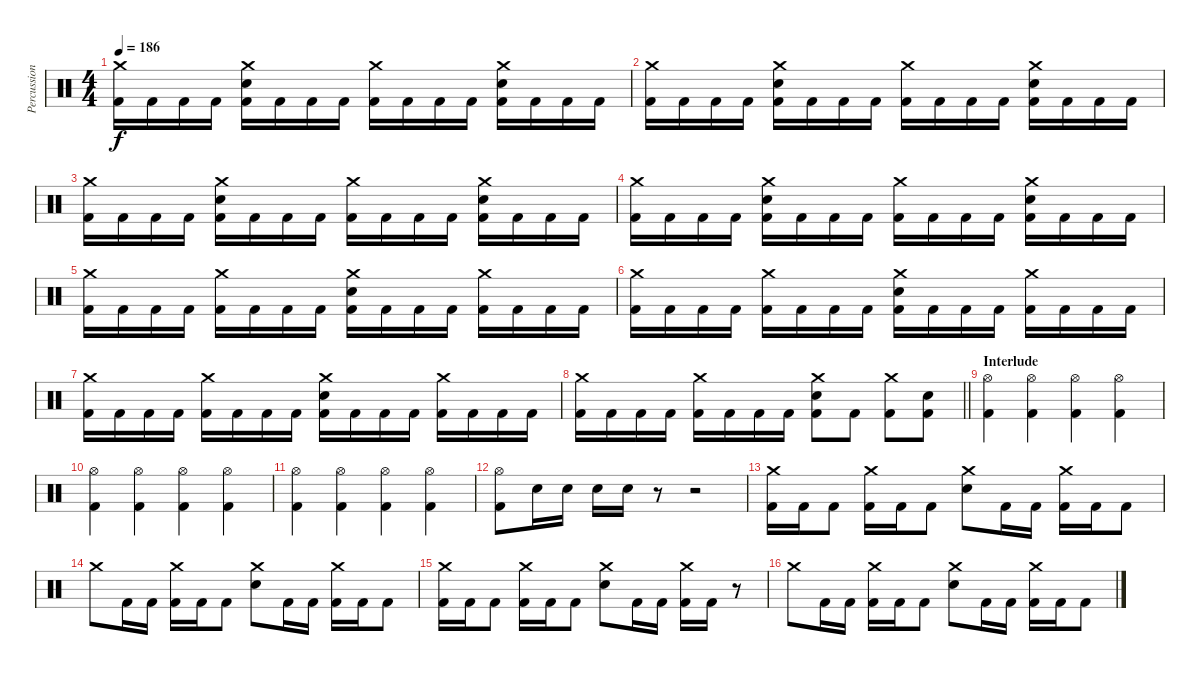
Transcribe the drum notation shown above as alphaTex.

\track ("Percussion" "Percussion") {instrument percussion}
\staff {score}
\articulation defaults
\ts (4 4)
\tempo 186
\clef neutral
\ks c
("Crash medium (hit)" "Kick (hit) 2").16{dy f} "Kick (hit) 2".16 "Kick (hit) 2".16 "Kick (hit) 2".16 ("Crash medium (hit)" "Snare (hit) 2" "Kick (hit) 2").16 "Kick (hit) 2".16 "Kick (hit) 2".16 "Kick (hit) 2".16 ("Crash medium (hit)" "Kick (hit) 2").16 "Kick (hit) 2".16 "Kick (hit) 2".16 "Kick (hit) 2".16 ("Crash medium (hit)" "Snare (hit) 2" "Kick (hit) 2").16 "Kick (hit) 2".16 "Kick (hit) 2".16 "Kick (hit) 2".16 |
("Crash medium (hit)" "Kick (hit) 2").16 "Kick (hit) 2".16 "Kick (hit) 2".16 "Kick (hit) 2".16 ("Crash medium (hit)" "Snare (hit) 2" "Kick (hit) 2").16 "Kick (hit) 2".16 "Kick (hit) 2".16 "Kick (hit) 2".16 ("Crash medium (hit)" "Kick (hit) 2").16 "Kick (hit) 2".16 "Kick (hit) 2".16 "Kick (hit) 2".16 ("Crash medium (hit)" "Snare (hit) 2" "Kick (hit) 2").16 "Kick (hit) 2".16 "Kick (hit) 2".16 "Kick (hit) 2".16 |
("Crash medium (hit)" "Kick (hit) 2").16 "Kick (hit) 2".16 "Kick (hit) 2".16 "Kick (hit) 2".16 ("Crash medium (hit)" "Snare (hit) 2" "Kick (hit) 2").16 "Kick (hit) 2".16 "Kick (hit) 2".16 "Kick (hit) 2".16 ("Crash medium (hit)" "Kick (hit) 2").16 "Kick (hit) 2".16 "Kick (hit) 2".16 "Kick (hit) 2".16 ("Crash medium (hit)" "Snare (hit) 2" "Kick (hit) 2").16 "Kick (hit) 2".16 "Kick (hit) 2".16 "Kick (hit) 2".16 |
("Crash medium (hit)" "Kick (hit) 2").16 "Kick (hit) 2".16 "Kick (hit) 2".16 "Kick (hit) 2".16 ("Crash medium (hit)" "Snare (hit) 2" "Kick (hit) 2").16 "Kick (hit) 2".16 "Kick (hit) 2".16 "Kick (hit) 2".16 ("Crash medium (hit)" "Kick (hit) 2").16 "Kick (hit) 2".16 "Kick (hit) 2".16 "Kick (hit) 2".16 ("Crash medium (hit)" "Snare (hit) 2" "Kick (hit) 2").16 "Kick (hit) 2".16 "Kick (hit) 2".16 "Kick (hit) 2".16 |
("Crash medium (hit)" "Kick (hit) 2").16 "Kick (hit) 2".16 "Kick (hit) 2".16 "Kick (hit) 2".16 ("Crash medium (hit)" "Kick (hit) 2").16 "Kick (hit) 2".16 "Kick (hit) 2".16 "Kick (hit) 2".16 ("Crash medium (hit)" "Snare (hit) 2" "Kick (hit) 2").16 "Kick (hit) 2".16 "Kick (hit) 2".16 "Kick (hit) 2".16 ("Crash medium (hit)" "Kick (hit) 2").16 "Kick (hit) 2".16 "Kick (hit) 2".16 "Kick (hit) 2".16 |
("Crash medium (hit)" "Kick (hit) 2").16 "Kick (hit) 2".16 "Kick (hit) 2".16 "Kick (hit) 2".16 ("Crash medium (hit)" "Kick (hit) 2").16 "Kick (hit) 2".16 "Kick (hit) 2".16 "Kick (hit) 2".16 ("Crash medium (hit)" "Snare (hit) 2" "Kick (hit) 2").16 "Kick (hit) 2".16 "Kick (hit) 2".16 "Kick (hit) 2".16 ("Crash medium (hit)" "Kick (hit) 2").16 "Kick (hit) 2".16 "Kick (hit) 2".16 "Kick (hit) 2".16 |
("Crash medium (hit)" "Kick (hit) 2").16 "Kick (hit) 2".16 "Kick (hit) 2".16 "Kick (hit) 2".16 ("Crash medium (hit)" "Kick (hit) 2").16 "Kick (hit) 2".16 "Kick (hit) 2".16 "Kick (hit) 2".16 ("Crash medium (hit)" "Snare (hit) 2" "Kick (hit) 2").16 "Kick (hit) 2".16 "Kick (hit) 2".16 "Kick (hit) 2".16 ("Crash medium (hit)" "Kick (hit) 2").16 "Kick (hit) 2".16 "Kick (hit) 2".16 "Kick (hit) 2".16 |
\barLineRight lightlight
("Crash medium (hit)" "Kick (hit) 2").16 "Kick (hit) 2".16 "Kick (hit) 2".16 "Kick (hit) 2".16 ("Crash medium (hit)" "Kick (hit) 2").16 "Kick (hit) 2".16 "Kick (hit) 2".16 "Kick (hit) 2".16 ("Crash medium (hit)" "Snare (hit) 2" "Kick (hit) 2").8 "Kick (hit) 2".8 ("Crash medium (hit)" "Kick (hit) 2").8 ("Snare (hit) 2" "Kick (hit) 2").8 |
\section ("" "Interlude")
("Hi-Hat (open)" "Kick (hit) 2").4 ("Hi-Hat (open)" "Kick (hit) 2").4 ("Hi-Hat (open)" "Kick (hit) 2").4 ("Hi-Hat (open)" "Kick (hit) 2").4 |
("Hi-Hat (open)" "Kick (hit) 2").4 ("Hi-Hat (open)" "Kick (hit) 2").4 ("Hi-Hat (open)" "Kick (hit) 2").4 ("Hi-Hat (open)" "Kick (hit) 2").4 |
("Hi-Hat (open)" "Kick (hit) 2").4 ("Hi-Hat (open)" "Kick (hit) 2").4 ("Hi-Hat (open)" "Kick (hit) 2").4 ("Hi-Hat (open)" "Kick (hit) 2").4 |
("Hi-Hat (open)" "Kick (hit) 2").8 "Snare (hit) 2".16 "Snare (hit) 2".16 "Snare (hit) 2".16 "Snare (hit) 2".16 r.8 r.2 |
("Crash medium (hit)" "Kick (hit) 2").16 "Kick (hit) 2".16 "Kick (hit) 2".8 ("Crash medium (hit)" "Kick (hit) 2").16 "Kick (hit) 2".16 "Kick (hit) 2".8 ("Crash medium (hit)" "Snare (hit) 2").8 "Kick (hit) 2".16 "Kick (hit) 2".16 ("Crash medium (hit)" "Kick (hit) 2").16 "Kick (hit) 2".16 "Kick (hit) 2".8 |
"Crash medium (hit)".8 "Kick (hit) 2".16 "Kick (hit) 2".16 ("Crash medium (hit)" "Kick (hit) 2").16 "Kick (hit) 2".16 "Kick (hit) 2".8 ("Crash medium (hit)" "Snare (hit) 2").8 "Kick (hit) 2".16 "Kick (hit) 2".16 ("Crash medium (hit)" "Kick (hit) 2").16 "Kick (hit) 2".16 "Kick (hit) 2".8 |
("Crash medium (hit)" "Kick (hit) 2").16 "Kick (hit) 2".16 "Kick (hit) 2".8 ("Crash medium (hit)" "Kick (hit) 2").16 "Kick (hit) 2".16 "Kick (hit) 2".8 ("Crash medium (hit)" "Snare (hit) 2").8 "Kick (hit) 2".16 "Kick (hit) 2".16 ("Crash medium (hit)" "Kick (hit) 2").16 "Kick (hit) 2".16 r.8 |
"Crash medium (hit)".8 "Kick (hit) 2".16 "Kick (hit) 2".16 ("Crash medium (hit)" "Kick (hit) 2").16 "Kick (hit) 2".16 "Kick (hit) 2".8 ("Crash medium (hit)" "Snare (hit) 2").8 "Kick (hit) 2".16 "Kick (hit) 2".16 ("Crash medium (hit)" "Kick (hit) 2").16 "Kick (hit) 2".16 "Kick (hit) 2".8
